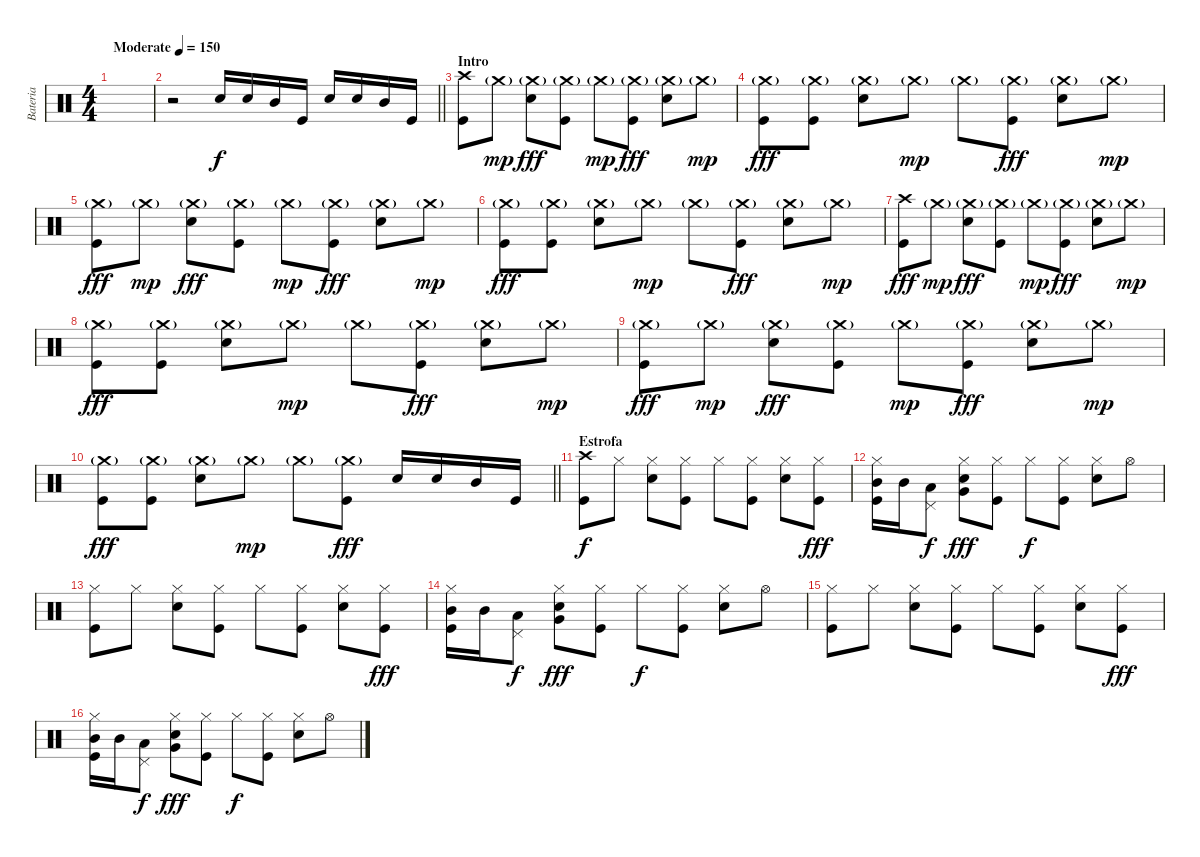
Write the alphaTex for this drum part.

\track ("Bateria" "Bateria") {instrument percussion}
\staff {score}
\articulation defaults
\ts (4 4)
\tempo (150 "Moderate")
\clef neutral
\ks c
|
\barLineRight lightlight
r.2 "Electric Snare (hit)".16 "Electric Snare (hit)".16 "Mid Tom (hit)".16 "Kick (hit)".16 "Electric Snare (hit)".16 "Electric Snare (hit)".16 "Mid Tom (hit)".16 "Kick (hit)".16 |
\section ("" "Intro")
("Crash high (hit)" "Kick (hit)").8 "Crash medium (hit)"{g}.8{dy mp} ("Crash medium (hit)"{g} "Electric Snare (hit)").8{dy fff} ("Crash medium (hit)"{g} "Kick (hit)").8 "Crash medium (hit)"{g}.8{dy mp} ("Crash medium (hit)"{g} "Kick (hit)").8{dy fff} ("Crash medium (hit)"{g} "Electric Snare (hit)").8 "Crash medium (hit)"{g}.8{dy mp} |
("Crash medium (hit)"{g} "Kick (hit)").8{dy fff} ("Crash medium (hit)"{g} "Kick (hit)").8 ("Crash medium (hit)"{g} "Electric Snare (hit)").8 "Crash medium (hit)"{g}.8{dy mp} "Crash medium (hit)"{g}.8 ("Crash medium (hit)"{g} "Kick (hit)").8{dy fff} ("Crash medium (hit)"{g} "Electric Snare (hit)").8 "Crash medium (hit)"{g}.8{dy mp} |
("Crash medium (hit)"{g} "Kick (hit)").8{dy fff} "Crash medium (hit)"{g}.8{dy mp} ("Crash medium (hit)"{g} "Electric Snare (hit)").8{dy fff} ("Crash medium (hit)"{g} "Kick (hit)").8 "Crash medium (hit)"{g}.8{dy mp} ("Crash medium (hit)"{g} "Kick (hit)").8{dy fff} ("Crash medium (hit)"{g} "Electric Snare (hit)").8 "Crash medium (hit)"{g}.8{dy mp} |
("Crash medium (hit)"{g} "Kick (hit)").8{dy fff} ("Crash medium (hit)"{g} "Kick (hit)").8 ("Crash medium (hit)"{g} "Electric Snare (hit)").8 "Crash medium (hit)"{g}.8{dy mp} "Crash medium (hit)"{g}.8 ("Crash medium (hit)"{g} "Kick (hit)").8{dy fff} ("Crash medium (hit)"{g} "Electric Snare (hit)").8 "Crash medium (hit)"{g}.8{dy mp} |
("Crash high (hit)" "Kick (hit)").8{dy fff} "Crash medium (hit)"{g}.8{dy mp} ("Crash medium (hit)"{g} "Electric Snare (hit)").8{dy fff} ("Crash medium (hit)"{g} "Kick (hit)").8 "Crash medium (hit)"{g}.8{dy mp} ("Crash medium (hit)"{g} "Kick (hit)").8{dy fff} ("Crash medium (hit)"{g} "Electric Snare (hit)").8 "Crash medium (hit)"{g}.8{dy mp} |
("Crash medium (hit)"{g} "Kick (hit)").8{dy fff} ("Crash medium (hit)"{g} "Kick (hit)").8 ("Crash medium (hit)"{g} "Electric Snare (hit)").8 "Crash medium (hit)"{g}.8{dy mp} "Crash medium (hit)"{g}.8 ("Crash medium (hit)"{g} "Kick (hit)").8{dy fff} ("Crash medium (hit)"{g} "Electric Snare (hit)").8 "Crash medium (hit)"{g}.8{dy mp} |
("Crash medium (hit)"{g} "Kick (hit)").8{dy fff} "Crash medium (hit)"{g}.8{dy mp} ("Crash medium (hit)"{g} "Electric Snare (hit)").8{dy fff} ("Crash medium (hit)"{g} "Kick (hit)").8 "Crash medium (hit)"{g}.8{dy mp} ("Crash medium (hit)"{g} "Kick (hit)").8{dy fff} ("Crash medium (hit)"{g} "Electric Snare (hit)").8 "Crash medium (hit)"{g}.8{dy mp} |
\barLineRight lightlight
("Crash medium (hit)"{g} "Kick (hit)").8{dy fff} ("Crash medium (hit)"{g} "Kick (hit)").8 ("Crash medium (hit)"{g} "Electric Snare (hit)").8 "Crash medium (hit)"{g}.8{dy mp} "Crash medium (hit)"{g}.8 ("Crash medium (hit)"{g} "Kick (hit)").8{dy fff} "Electric Snare (hit)".16 "Electric Snare (hit)".16 "Mid Tom (hit)".16 "Kick (hit)".16 |
\section ("" "Estrofa")
("Crash high (hit)" "Kick (hit)").8{dy f} "Hi-Hat (closed)".8 ("Hi-Hat (closed)" "Electric Snare (hit)").8 ("Hi-Hat (closed)" "Kick (hit)").8 "Hi-Hat (closed)".8 ("Hi-Hat (closed)" "Kick (hit)").8 ("Hi-Hat (closed)" "Electric Snare (hit)").8 ("Hi-Hat (closed)" "Kick (hit)").8{dy fff} |
("Hi-Hat (closed)" "Kick (hit)" "Mid Tom (hit)").16 "Mid Tom (hit)".16 ("Pedal Hi-Hat (hit)" "Low Tom (hit)").8{dy f} ("Hi-Hat (closed)" "Very Low Tom (hit)" "Electric Snare (hit)").8{dy fff} ("Hi-Hat (closed)" "Kick (hit)").8 "Hi-Hat (closed)".8{dy f} ("Hi-Hat (closed)" "Kick (hit)").8 ("Hi-Hat (closed)" "Electric Snare (hit)").8 "Hi-Hat (open)".8 |
("Hi-Hat (closed)" "Kick (hit)").8 "Hi-Hat (closed)".8 ("Hi-Hat (closed)" "Electric Snare (hit)").8 ("Hi-Hat (closed)" "Kick (hit)").8 "Hi-Hat (closed)".8 ("Hi-Hat (closed)" "Kick (hit)").8 ("Hi-Hat (closed)" "Electric Snare (hit)").8 ("Hi-Hat (closed)" "Kick (hit)").8{dy fff} |
("Hi-Hat (closed)" "Kick (hit)" "Mid Tom (hit)").16 "Mid Tom (hit)".16 ("Pedal Hi-Hat (hit)" "Low Tom (hit)").8{dy f} ("Hi-Hat (closed)" "Very Low Tom (hit)" "Electric Snare (hit)").8{dy fff} ("Hi-Hat (closed)" "Kick (hit)").8 "Hi-Hat (closed)".8{dy f} ("Hi-Hat (closed)" "Kick (hit)").8 ("Hi-Hat (closed)" "Electric Snare (hit)").8 "Hi-Hat (open)".8 |
("Hi-Hat (closed)" "Kick (hit)").8 "Hi-Hat (closed)".8 ("Hi-Hat (closed)" "Electric Snare (hit)").8 ("Hi-Hat (closed)" "Kick (hit)").8 "Hi-Hat (closed)".8 ("Hi-Hat (closed)" "Kick (hit)").8 ("Hi-Hat (closed)" "Electric Snare (hit)").8 ("Hi-Hat (closed)" "Kick (hit)").8{dy fff} |
("Hi-Hat (closed)" "Kick (hit)" "Mid Tom (hit)").16 "Mid Tom (hit)".16 ("Pedal Hi-Hat (hit)" "Low Tom (hit)").8{dy f} ("Hi-Hat (closed)" "Very Low Tom (hit)" "Electric Snare (hit)").8{dy fff} ("Hi-Hat (closed)" "Kick (hit)").8 "Hi-Hat (closed)".8{dy f} ("Hi-Hat (closed)" "Kick (hit)").8 ("Hi-Hat (closed)" "Electric Snare (hit)").8 "Hi-Hat (open)".8
